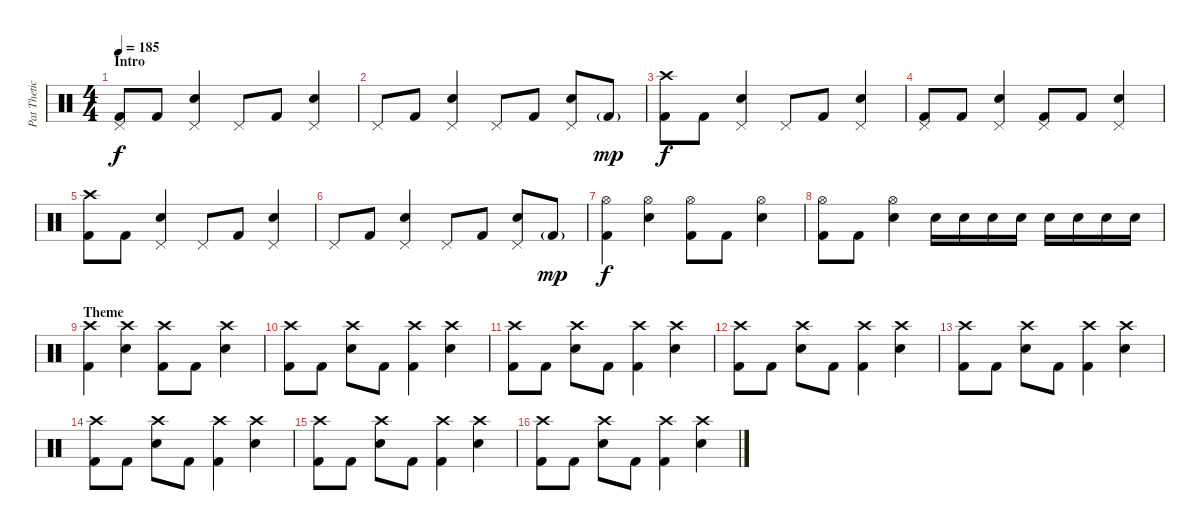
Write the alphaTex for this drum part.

\track ("Pat Thetic" "Pat Thetic") {instrument percussion}
\staff {score}
\articulation defaults
\ts (4 4)
\section ("" "Intro")
\tempo 185
\clef neutral
\ks c
("Pedal Hi-Hat (hit)" "Kick (hit) 2").8{dy f} "Kick (hit) 2".8 ("Pedal Hi-Hat (hit)" "Electric Snare (hit)").4 "Pedal Hi-Hat (hit)".8 "Kick (hit) 2".8 ("Pedal Hi-Hat (hit)" "Electric Snare (hit)").4 |
"Pedal Hi-Hat (hit)".8 "Kick (hit) 2".8 ("Pedal Hi-Hat (hit)" "Electric Snare (hit)").4 "Pedal Hi-Hat (hit)".8 "Kick (hit) 2".8 ("Pedal Hi-Hat (hit)" "Electric Snare (hit)").8 "Kick (hit) 2"{g}.8{dy mp} |
("Crash high (hit)" "Kick (hit) 2").8{dy f} "Kick (hit) 2".8 ("Pedal Hi-Hat (hit)" "Electric Snare (hit)").4 "Pedal Hi-Hat (hit)".8 "Kick (hit) 2".8 ("Pedal Hi-Hat (hit)" "Electric Snare (hit)").4 |
("Pedal Hi-Hat (hit)" "Kick (hit) 2").8 "Kick (hit) 2".8 ("Pedal Hi-Hat (hit)" "Electric Snare (hit)").4 ("Pedal Hi-Hat (hit)" "Kick (hit) 2").8 "Kick (hit) 2".8 ("Pedal Hi-Hat (hit)" "Electric Snare (hit)").4 |
("Crash high (hit)" "Kick (hit) 2").8 "Kick (hit) 2".8 ("Pedal Hi-Hat (hit)" "Electric Snare (hit)").4 "Pedal Hi-Hat (hit)".8 "Kick (hit) 2".8 ("Pedal Hi-Hat (hit)" "Electric Snare (hit)").4 |
"Pedal Hi-Hat (hit)".8 "Kick (hit) 2".8 ("Pedal Hi-Hat (hit)" "Electric Snare (hit)").4 "Pedal Hi-Hat (hit)".8 "Kick (hit) 2".8 ("Pedal Hi-Hat (hit)" "Electric Snare (hit)").8 "Kick (hit) 2"{g}.8{dy mp} |
("Hi-Hat (open)" "Kick (hit) 2").4{dy f} ("Hi-Hat (open)" "Electric Snare (hit)").4 ("Hi-Hat (open)" "Kick (hit) 2").8 "Kick (hit) 2".8 ("Hi-Hat (open)" "Electric Snare (hit)").4 |
("Hi-Hat (open)" "Kick (hit) 2").8 "Kick (hit) 2".8 ("Hi-Hat (open)" "Electric Snare (hit)").4 "Electric Snare (hit)".16 "Electric Snare (hit)".16 "Electric Snare (hit)".16 "Electric Snare (hit)".16 "Electric Snare (hit)".16 "Electric Snare (hit)".16 "Electric Snare (hit)".16 "Electric Snare (hit)".16 |
\section ("" "Theme")
("Crash high (hit)" "Kick (hit) 2").4 ("Crash high (hit)" "Electric Snare (hit)").4 ("Crash high (hit)" "Kick (hit) 2").8 "Kick (hit) 2".8 ("Crash high (hit)" "Electric Snare (hit)").4 |
("Crash high (hit)" "Kick (hit) 2").8 "Kick (hit) 2".8 ("Crash high (hit)" "Electric Snare (hit)").8 "Kick (hit) 2".8 ("Crash high (hit)" "Kick (hit) 2").4 ("Crash high (hit)" "Electric Snare (hit)").4 |
("Crash high (hit)" "Kick (hit) 2").8 "Kick (hit) 2".8 ("Crash high (hit)" "Electric Snare (hit)").8 "Kick (hit) 2".8 ("Crash high (hit)" "Kick (hit) 2").4 ("Crash high (hit)" "Electric Snare (hit)").4 |
("Crash high (hit)" "Kick (hit) 2").8 "Kick (hit) 2".8 ("Crash high (hit)" "Electric Snare (hit)").8 "Kick (hit) 2".8 ("Crash high (hit)" "Kick (hit) 2").4 ("Crash high (hit)" "Electric Snare (hit)").4 |
("Crash high (hit)" "Kick (hit) 2").8 "Kick (hit) 2".8 ("Crash high (hit)" "Electric Snare (hit)").8 "Kick (hit) 2".8 ("Crash high (hit)" "Kick (hit) 2").4 ("Crash high (hit)" "Electric Snare (hit)").4 |
("Crash high (hit)" "Kick (hit) 2").8 "Kick (hit) 2".8 ("Crash high (hit)" "Electric Snare (hit)").8 "Kick (hit) 2".8 ("Crash high (hit)" "Kick (hit) 2").4 ("Crash high (hit)" "Electric Snare (hit)").4 |
("Crash high (hit)" "Kick (hit) 2").8 "Kick (hit) 2".8 ("Crash high (hit)" "Electric Snare (hit)").8 "Kick (hit) 2".8 ("Crash high (hit)" "Kick (hit) 2").4 ("Crash high (hit)" "Electric Snare (hit)").4 |
("Crash high (hit)" "Kick (hit) 2").8 "Kick (hit) 2".8 ("Crash high (hit)" "Electric Snare (hit)").8 "Kick (hit) 2".8 ("Crash high (hit)" "Kick (hit) 2").4 ("Crash high (hit)" "Electric Snare (hit)").4
